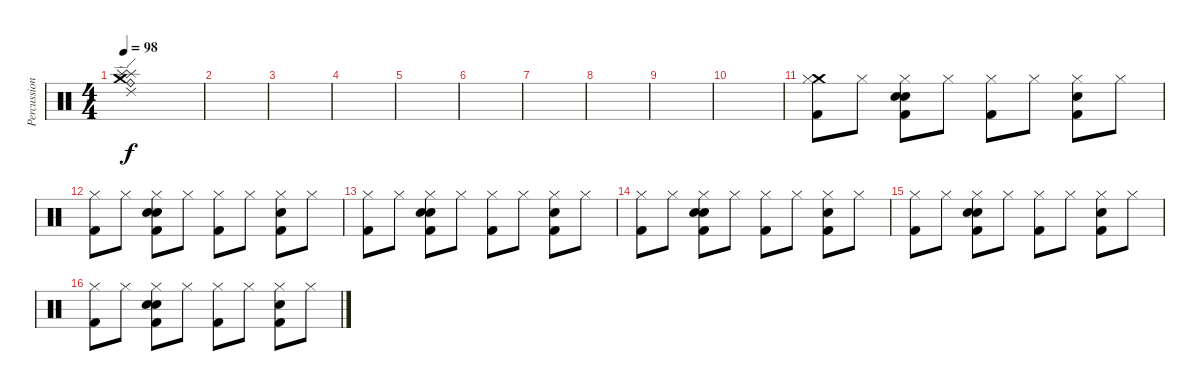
\track ("Percussion" "Percussion") {instrument percussion}
\staff {score}
\articulation defaults
\ts (4 4)
\tempo 98
\clef neutral
\ks c
("Splash (hit)" "Splash (hit)" "Ride (bell)" "Ride (edge) 2" "Crash medium (hit)").1{dy f} |
|
|
|
|
|
|
|
|
|
("Kick (hit) 2" "Crash medium (hit)" "Hi-Hat (closed)").8 "Hi-Hat (closed)".8 ("Hi-Hat (closed)" "Snare (hit)" "Snare (hit) 2" "Kick (hit) 2").8 "Hi-Hat (closed)".8 ("Hi-Hat (closed)" "Kick (hit) 2").8 "Hi-Hat (closed)".8 ("Hi-Hat (closed)" "Snare (hit) 2" "Kick (hit) 2").8 "Hi-Hat (closed)".8 |
("Kick (hit) 2" "Hi-Hat (closed)").8 "Hi-Hat (closed)".8 ("Hi-Hat (closed)" "Snare (hit)" "Snare (hit) 2" "Kick (hit) 2").8 "Hi-Hat (closed)".8 ("Hi-Hat (closed)" "Kick (hit) 2").8 "Hi-Hat (closed)".8 ("Hi-Hat (closed)" "Snare (hit) 2" "Kick (hit) 2").8 "Hi-Hat (closed)".8 |
("Kick (hit) 2" "Hi-Hat (closed)").8 "Hi-Hat (closed)".8 ("Hi-Hat (closed)" "Snare (hit)" "Snare (hit) 2" "Kick (hit) 2").8 "Hi-Hat (closed)".8 ("Hi-Hat (closed)" "Kick (hit) 2").8 "Hi-Hat (closed)".8 ("Hi-Hat (closed)" "Snare (hit) 2" "Kick (hit) 2").8 "Hi-Hat (closed)".8 |
("Kick (hit) 2" "Hi-Hat (closed)").8 "Hi-Hat (closed)".8 ("Hi-Hat (closed)" "Snare (hit)" "Snare (hit) 2" "Kick (hit) 2").8 "Hi-Hat (closed)".8 ("Hi-Hat (closed)" "Kick (hit) 2").8 "Hi-Hat (closed)".8 ("Hi-Hat (closed)" "Snare (hit) 2" "Kick (hit) 2").8 "Hi-Hat (closed)".8 |
("Kick (hit) 2" "Hi-Hat (closed)").8 "Hi-Hat (closed)".8 ("Hi-Hat (closed)" "Snare (hit)" "Snare (hit) 2" "Kick (hit) 2").8 "Hi-Hat (closed)".8 ("Hi-Hat (closed)" "Kick (hit) 2").8 "Hi-Hat (closed)".8 ("Hi-Hat (closed)" "Snare (hit) 2" "Kick (hit) 2").8 "Hi-Hat (closed)".8 |
("Kick (hit) 2" "Hi-Hat (closed)").8 "Hi-Hat (closed)".8 ("Hi-Hat (closed)" "Snare (hit)" "Snare (hit) 2" "Kick (hit) 2").8 "Hi-Hat (closed)".8 ("Hi-Hat (closed)" "Kick (hit) 2").8 "Hi-Hat (closed)".8 ("Hi-Hat (closed)" "Snare (hit) 2" "Kick (hit) 2").8 "Hi-Hat (closed)".8
